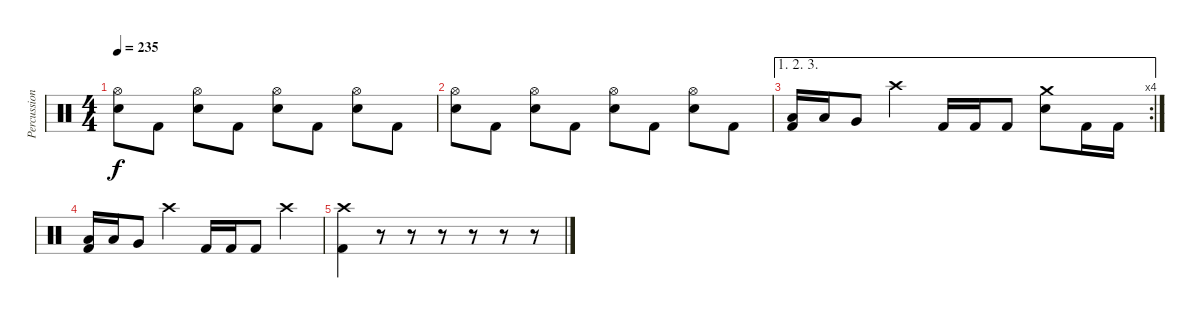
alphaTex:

\track ("Percussion" "Percussion") {instrument percussion}
\staff {score}
\articulation defaults
\ts (4 4)
\tempo 235
\clef neutral
\ks c
("Hi-Hat (open)" "Electric Snare (hit)").8{dy f} "Kick (hit) 2".8 ("Hi-Hat (open)" "Electric Snare (hit)").8 "Kick (hit) 2".8 ("Hi-Hat (open)" "Electric Snare (hit)").8 "Kick (hit) 2".8 ("Hi-Hat (open)" "Electric Snare (hit)").8 "Kick (hit) 2".8 |
("Hi-Hat (open)" "Electric Snare (hit)").8 "Kick (hit) 2".8 ("Hi-Hat (open)" "Electric Snare (hit)").8 "Kick (hit) 2".8 ("Hi-Hat (open)" "Electric Snare (hit)").8 "Kick (hit) 2".8 ("Hi-Hat (open)" "Electric Snare (hit)").8 "Kick (hit) 2".8 |
\ae (1 2 3)
\rc 4
("Low Tom (hit)" "Kick (hit) 2").16 "Low Tom (hit)".16 "Very Low Tom (hit)".8 "Crash high (hit)".4 "Kick (hit) 2".16 "Kick (hit) 2".16 "Kick (hit) 2".8 ("Crash medium (hit)" "Electric Snare (hit)").8 "Kick (hit) 2".16 "Kick (hit) 2".16 |
("Low Tom (hit)" "Kick (hit) 2").16 "Low Tom (hit)".16 "Very Low Tom (hit)".8 "Crash high (hit)".4 "Kick (hit) 2".16 "Kick (hit) 2".16 "Kick (hit) 2".8 "Crash high (hit)".4 |
("Crash high (hit)" "Kick (hit) 2").4 r.8{volume 0} r.8 r.8 r.8 r.8 r.8
